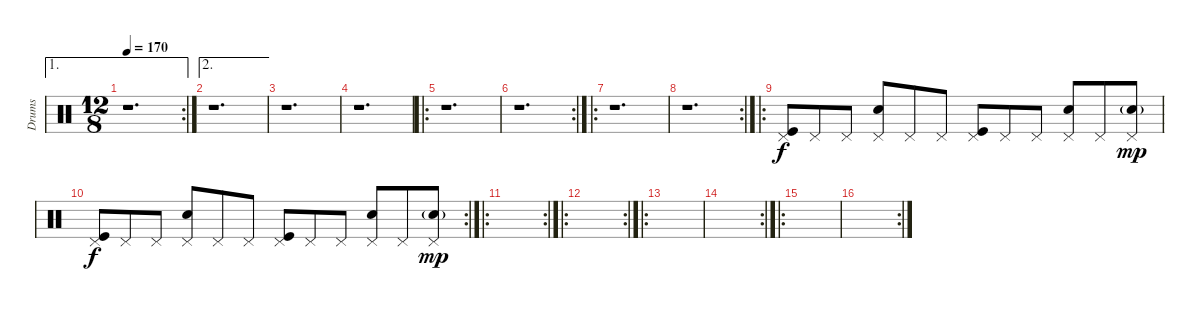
\track ("Drums" "Drums") {instrument percussion}
\staff {score}
\articulation defaults
\ae 1
\rc 2
\ts (12 8)
\tempo 170
\clef neutral
\ks c
r.1{d dy f} |
\ae 2
r.1{d} |
r.1{d} |
r.1{d} |
\ro
r.1{d} |
\rc 2
r.1{d} |
\ro
r.1{d} |
\rc 2
r.1{d} |
\ro
("Pedal Hi-Hat (hit)" "Kick (hit)").8 "Pedal Hi-Hat (hit)".8 "Pedal Hi-Hat (hit)".8 ("Pedal Hi-Hat (hit)" "Snare (hit) 2").8 "Pedal Hi-Hat (hit)".8 "Pedal Hi-Hat (hit)".8 ("Pedal Hi-Hat (hit)" "Kick (hit)").8 "Pedal Hi-Hat (hit)".8 "Pedal Hi-Hat (hit)".8 ("Pedal Hi-Hat (hit)" "Snare (hit) 2").8 "Pedal Hi-Hat (hit)".8 ("Pedal Hi-Hat (hit)" "Snare (hit) 2"{g}).8{dy mp} |
\rc 2
("Pedal Hi-Hat (hit)" "Kick (hit)").8{dy f} "Pedal Hi-Hat (hit)".8 "Pedal Hi-Hat (hit)".8 ("Pedal Hi-Hat (hit)" "Snare (hit) 2").8 "Pedal Hi-Hat (hit)".8 "Pedal Hi-Hat (hit)".8 ("Pedal Hi-Hat (hit)" "Kick (hit)").8 "Pedal Hi-Hat (hit)".8 "Pedal Hi-Hat (hit)".8 ("Pedal Hi-Hat (hit)" "Snare (hit) 2").8 "Pedal Hi-Hat (hit)".8 ("Pedal Hi-Hat (hit)" "Snare (hit) 2"{g}).8{dy mp} |
\ro
\rc 2
|
\ro
\rc 2
|
\ro
|
\rc 2
|
\ro
|
\rc 2
